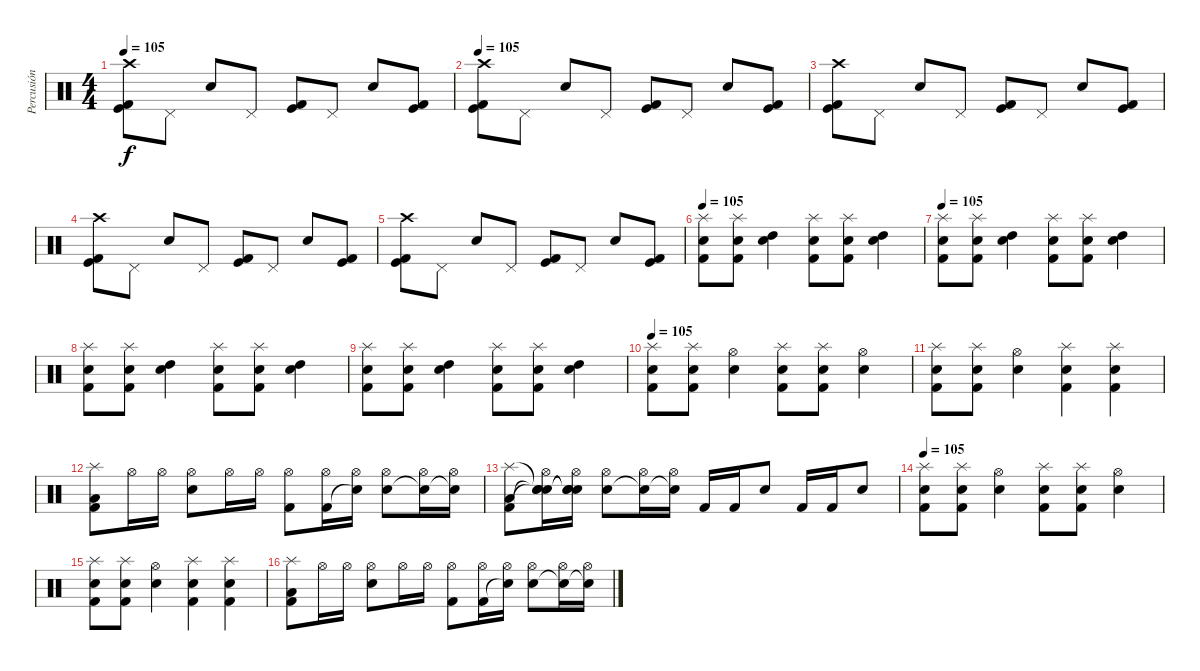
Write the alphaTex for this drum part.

\track ("Percusión" "Percusión") {instrument percussion}
\staff {score}
\articulation defaults
\ts (4 4)
\tempo 105
\clef neutral
\ks c
("Kick (hit) 2" "Kick (hit)" "Crash high (hit)").8{dy f} "Pedal Hi-Hat (hit)".8 "Electric Snare (hit)".8 "Pedal Hi-Hat (hit)".8 ("Kick (hit) 2" "Kick (hit)").8 "Pedal Hi-Hat (hit)".8 "Electric Snare (hit)".8 ("Kick (hit) 2" "Kick (hit)").8 |
\tempo 105
("Kick (hit) 2" "Kick (hit)" "Crash high (hit)").8 "Pedal Hi-Hat (hit)".8 "Electric Snare (hit)".8 "Pedal Hi-Hat (hit)".8 ("Kick (hit) 2" "Kick (hit)").8 "Pedal Hi-Hat (hit)".8 "Electric Snare (hit)".8 ("Kick (hit) 2" "Kick (hit)").8 |
("Kick (hit) 2" "Kick (hit)" "Crash high (hit)").8 "Pedal Hi-Hat (hit)".8 "Electric Snare (hit)".8 "Pedal Hi-Hat (hit)".8 ("Kick (hit) 2" "Kick (hit)").8 "Pedal Hi-Hat (hit)".8 "Electric Snare (hit)".8 ("Kick (hit) 2" "Kick (hit)").8 |
("Kick (hit) 2" "Kick (hit)" "Crash high (hit)").8 "Pedal Hi-Hat (hit)".8 "Electric Snare (hit)".8 "Pedal Hi-Hat (hit)".8 ("Kick (hit) 2" "Kick (hit)").8 "Pedal Hi-Hat (hit)".8 "Electric Snare (hit)".8 ("Kick (hit) 2" "Kick (hit)").8 |
("Kick (hit) 2" "Kick (hit)" "Crash high (hit)").8 "Pedal Hi-Hat (hit)".8 "Electric Snare (hit)".8 "Pedal Hi-Hat (hit)".8 ("Kick (hit) 2" "Kick (hit)").8 "Pedal Hi-Hat (hit)".8 "Electric Snare (hit)".8 ("Kick (hit) 2" "Kick (hit)").8 |
\tempo 105
("Electric Snare (hit)" "Splash (hit)" "Kick (hit) 2").8 ("Electric Snare (hit)" "Splash (hit)" "Kick (hit) 2").8 ("High Tom (hit)" "Electric Snare (hit)").4 ("Electric Snare (hit)" "Splash (hit)" "Kick (hit) 2").8 ("Electric Snare (hit)" "Splash (hit)" "Kick (hit) 2").8 ("High Tom (hit)" "Electric Snare (hit)").4 |
\tempo 105
("Electric Snare (hit)" "Splash (hit)" "Kick (hit) 2").8 ("Electric Snare (hit)" "Splash (hit)" "Kick (hit) 2").8 ("High Tom (hit)" "Electric Snare (hit)").4 ("Electric Snare (hit)" "Splash (hit)" "Kick (hit) 2").8 ("Electric Snare (hit)" "Splash (hit)" "Kick (hit) 2").8 ("High Tom (hit)" "Electric Snare (hit)").4 |
("Electric Snare (hit)" "Splash (hit)" "Kick (hit) 2").8 ("Electric Snare (hit)" "Splash (hit)" "Kick (hit) 2").8 ("High Tom (hit)" "Electric Snare (hit)").4 ("Electric Snare (hit)" "Splash (hit)" "Kick (hit) 2").8 ("Electric Snare (hit)" "Splash (hit)" "Kick (hit) 2").8 ("High Tom (hit)" "Electric Snare (hit)").4 |
("Electric Snare (hit)" "Splash (hit)" "Kick (hit) 2").8 ("Electric Snare (hit)" "Splash (hit)" "Kick (hit) 2").8 ("High Tom (hit)" "Electric Snare (hit)").4 ("Electric Snare (hit)" "Splash (hit)" "Kick (hit) 2").8 ("Electric Snare (hit)" "Splash (hit)" "Kick (hit) 2").8 ("High Tom (hit)" "Electric Snare (hit)").4 |
\tempo 105
("Splash (hit)" "Kick (hit) 2" "Electric Snare (hit)").8 ("Splash (hit)" "Kick (hit) 2" "Electric Snare (hit)").8 ("Electric Snare (hit)" "Hi-Hat (open)").4 ("Splash (hit)" "Kick (hit) 2" "Electric Snare (hit)").8 ("Splash (hit)" "Kick (hit) 2" "Electric Snare (hit)").8 ("Electric Snare (hit)" "Hi-Hat (open)").4 |
("Splash (hit)" "Kick (hit) 2" "Electric Snare (hit)").8 ("Splash (hit)" "Kick (hit) 2" "Electric Snare (hit)").8 ("Electric Snare (hit)" "Hi-Hat (open)").4 ("Splash (hit)" "Kick (hit) 2" "Electric Snare (hit)").4 ("Splash (hit)" "Kick (hit) 2" "Electric Snare (hit)").4 |
("Kick (hit) 2" "Low Tom (hit)" "Splash (hit)").8 "Hi-Hat (open)".16 "Hi-Hat (open)".16 ("Electric Snare (hit)" "Hi-Hat (open)").8 "Hi-Hat (open)".16 "Hi-Hat (open)".16 ("Kick (hit) 2" "Hi-Hat (open)").8 ("Kick (hit) 2" "Hi-Hat (open)").16 ("Snare (hit)"{t} "Hi-Hat (open)").16 ("Electric Snare (hit)" "Hi-Hat (open)").8 ("Snare (hit)"{t} "Hi-Hat (open)").16 ("Snare (hit)"{t} "Hi-Hat (open)").16 |
("Kick (hit) 2" "Low Tom (hit)" "Splash (hit)").8 ("Snare (hit)"{t} "Snare (hit)"{t} "Snare (hit)"{t} "Hi-Hat (open)").16 ("Snare (hit)"{t} "Snare (hit)"{t} "Snare (hit)"{t} "Hi-Hat (open)").16 ("Electric Snare (hit)" "Hi-Hat (open)").8 ("Snare (hit)"{t} "Hi-Hat (open)").16 ("Snare (hit)"{t} "Hi-Hat (open)").16 "Kick (hit) 2".16 "Kick (hit) 2".16 "Electric Snare (hit)".8 "Kick (hit) 2".16 "Kick (hit) 2".16 "Electric Snare (hit)".8 |
\tempo 105
("Splash (hit)" "Kick (hit) 2" "Electric Snare (hit)").8 ("Splash (hit)" "Kick (hit) 2" "Electric Snare (hit)").8 ("Electric Snare (hit)" "Hi-Hat (open)").4 ("Splash (hit)" "Kick (hit) 2" "Electric Snare (hit)").8 ("Splash (hit)" "Kick (hit) 2" "Electric Snare (hit)").8 ("Electric Snare (hit)" "Hi-Hat (open)").4 |
("Splash (hit)" "Kick (hit) 2" "Electric Snare (hit)").8 ("Splash (hit)" "Kick (hit) 2" "Electric Snare (hit)").8 ("Electric Snare (hit)" "Hi-Hat (open)").4 ("Splash (hit)" "Kick (hit) 2" "Electric Snare (hit)").4 ("Splash (hit)" "Kick (hit) 2" "Electric Snare (hit)").4 |
("Kick (hit) 2" "Low Tom (hit)" "Splash (hit)").8 "Hi-Hat (open)".16 "Hi-Hat (open)".16 ("Electric Snare (hit)" "Hi-Hat (open)").8 "Hi-Hat (open)".16 "Hi-Hat (open)".16 ("Kick (hit) 2" "Hi-Hat (open)").8 ("Kick (hit) 2" "Hi-Hat (open)").16 ("Snare (hit)"{t} "Hi-Hat (open)").16 ("Electric Snare (hit)" "Hi-Hat (open)").8 ("Snare (hit)"{t} "Hi-Hat (open)").16 ("Snare (hit)"{t} "Hi-Hat (open)").16
